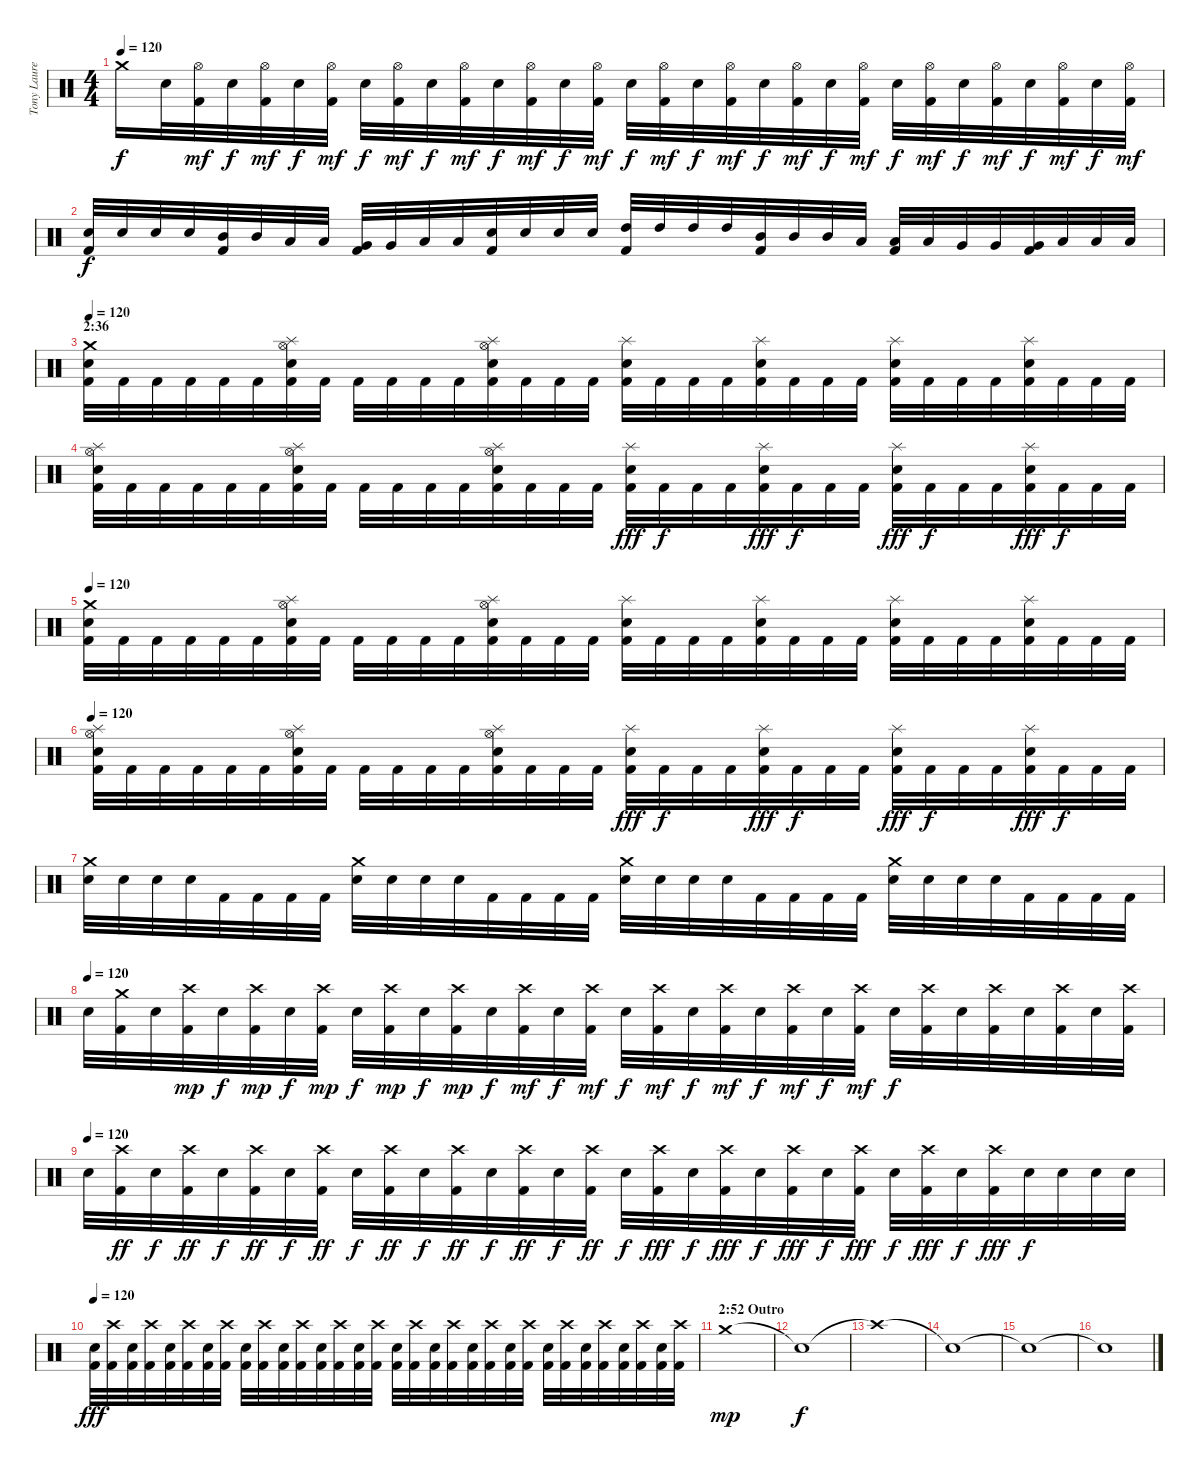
\track ("Tony Laureano" "Tony Laure") {instrument percussion}
\staff {score}
\articulation defaults
\ts (4 4)
\tempo 120
\clef neutral
\ks c "Crash medium (hit)".16{dy f} "Electric Snare (hit)".32
("Hi-Hat (open)" "Kick (hit) 2").32{dy mf} "Electric Snare (hit)".32{dy f} ("Hi-Hat (open)" "Kick (hit) 2").32{dy mf} "Electric Snare (hit)".32{dy f} ("Hi-Hat (open)" "Kick (hit) 2").32{dy mf} "Electric Snare (hit)".32{dy f} ("Hi-Hat (open)" "Kick (hit) 2").32{dy mf} "Electric Snare (hit)".32{dy f} ("Hi-Hat (open)" "Kick (hit) 2").32{dy mf} "Electric Snare (hit)".32{dy f} ("Hi-Hat (open)" "Kick (hit) 2").32{dy mf} "Electric Snare (hit)".32{dy f} ("Hi-Hat (open)" "Kick (hit) 2").32{dy mf} "Electric Snare (hit)".32{dy f} ("Hi-Hat (open)" "Kick (hit) 2").32{dy mf} "Electric Snare (hit)".32{dy f} ("Hi-Hat (open)" "Kick (hit) 2").32{dy mf} "Electric Snare (hit)".32{dy f} ("Hi-Hat (open)" "Kick (hit) 2").32{dy mf} "Electric Snare (hit)".32{dy f} ("Hi-Hat (open)" "Kick (hit) 2").32{dy mf} "Electric Snare (hit)".32{dy f} ("Hi-Hat (open)" "Kick (hit) 2").32{dy mf} "Electric Snare (hit)".32{dy f} ("Hi-Hat (open)" "Kick (hit) 2").32{dy mf} "Electric Snare (hit)".32{dy f} ("Hi-Hat (open)" "Kick (hit) 2").32{dy mf} "Electric Snare (hit)".32{dy f} ("Hi-Hat (open)" "Kick (hit) 2").32{dy mf} |
("Electric Snare (hit)" "Kick (hit) 2").32{dy f} "Electric Snare (hit)".32 "Electric Snare (hit)".32 "Electric Snare (hit)".32 ("Mid Tom (hit)" "Kick (hit) 2").32 "Mid Tom (hit)".32 "Low Tom (hit)".32 "Low Tom (hit)".32 ("Very Low Tom (hit)" "Kick (hit) 2").32 "Very Low Tom (hit)".32 "Low Floor Tom (hit)".32 "Low Floor Tom (hit)".32 ("Electric Snare (hit)" "Kick (hit) 2").32 "Electric Snare (hit)".32 "Electric Snare (hit)".32 "Electric Snare (hit)".32 ("High Tom (hit)" "Kick (hit) 2").32 "High Tom (hit)".32 "High Tom (hit)".32 "High Tom (hit)".32 ("Mid Tom (hit)" "Kick (hit) 2").32 "Mid Tom (hit)".32 "Mid Tom (hit)".32 "Low Tom (hit)".32 ("Low Tom (hit)" "Kick (hit) 2").32 "Low Tom (hit)".32 "Very Low Tom (hit)".32 "Very Low Tom (hit)".32 ("Very Low Tom (hit)" "Kick (hit) 2").32 "Low Floor Tom (hit)".32 "Low Floor Tom (hit)".32 "Low Floor Tom (hit)".32 |
\section ("" "2:36")
\tempo 120
("Crash medium (hit)" "Electric Snare (hit)" "Kick (hit) 2").32 "Kick (hit) 2".32 "Kick (hit) 2".32 "Kick (hit) 2".32 "Kick (hit) 2".32 "Kick (hit) 2".32 ("Splash (hit)" "Hi-Hat (open)" "Electric Snare (hit)" "Kick (hit) 2").32 "Kick (hit) 2".32 "Kick (hit) 2".32 "Kick (hit) 2".32 "Kick (hit) 2".32 "Kick (hit) 2".32 ("Splash (hit)" "Hi-Hat (open)" "Electric Snare (hit)" "Kick (hit) 2").32 "Kick (hit) 2".32 "Kick (hit) 2".32 "Kick (hit) 2".32 ("Splash (hit)" "Electric Snare (hit)" "Kick (hit) 2").32 "Kick (hit) 2".32 "Kick (hit) 2".32 "Kick (hit) 2".32 ("Splash (hit)" "Electric Snare (hit)" "Kick (hit) 2").32 "Kick (hit) 2".32 "Kick (hit) 2".32 "Kick (hit) 2".32 ("Splash (hit)" "Electric Snare (hit)" "Kick (hit) 2").32 "Kick (hit) 2".32 "Kick (hit) 2".32 "Kick (hit) 2".32 ("Splash (hit)" "Electric Snare (hit)" "Kick (hit) 2").32 "Kick (hit) 2".32 "Kick (hit) 2".32 "Kick (hit) 2".32 |
("Splash (hit)" "Hi-Hat (open)" "Electric Snare (hit)" "Kick (hit) 2").32 "Kick (hit) 2".32 "Kick (hit) 2".32 "Kick (hit) 2".32 "Kick (hit) 2".32 "Kick (hit) 2".32 ("Splash (hit)" "Hi-Hat (open)" "Electric Snare (hit)" "Kick (hit) 2").32 "Kick (hit) 2".32 "Kick (hit) 2".32 "Kick (hit) 2".32 "Kick (hit) 2".32 "Kick (hit) 2".32 ("Splash (hit)" "Hi-Hat (open)" "Electric Snare (hit)" "Kick (hit) 2").32 "Kick (hit) 2".32 "Kick (hit) 2".32 "Kick (hit) 2".32 ("Splash (hit)" "Electric Snare (hit)" "Kick (hit) 2").32{dy fff} "Kick (hit) 2".32{dy f} "Kick (hit) 2".32 "Kick (hit) 2".32 ("Splash (hit)" "Electric Snare (hit)" "Kick (hit) 2").32{dy fff} "Kick (hit) 2".32{dy f} "Kick (hit) 2".32 "Kick (hit) 2".32 ("Splash (hit)" "Electric Snare (hit)" "Kick (hit) 2").32{dy fff} "Kick (hit) 2".32{dy f} "Kick (hit) 2".32 "Kick (hit) 2".32 ("Splash (hit)" "Electric Snare (hit)" "Kick (hit) 2").32{dy fff} "Kick (hit) 2".32{dy f} "Kick (hit) 2".32 "Kick (hit) 2".32 |
\tempo 120
("Crash medium (hit)" "Electric Snare (hit)" "Kick (hit) 2").32 "Kick (hit) 2".32 "Kick (hit) 2".32 "Kick (hit) 2".32 "Kick (hit) 2".32 "Kick (hit) 2".32 ("Splash (hit)" "Hi-Hat (open)" "Electric Snare (hit)" "Kick (hit) 2").32 "Kick (hit) 2".32 "Kick (hit) 2".32 "Kick (hit) 2".32 "Kick (hit) 2".32 "Kick (hit) 2".32 ("Splash (hit)" "Hi-Hat (open)" "Electric Snare (hit)" "Kick (hit) 2").32 "Kick (hit) 2".32 "Kick (hit) 2".32 "Kick (hit) 2".32 ("Splash (hit)" "Electric Snare (hit)" "Kick (hit) 2").32 "Kick (hit) 2".32 "Kick (hit) 2".32 "Kick (hit) 2".32 ("Splash (hit)" "Electric Snare (hit)" "Kick (hit) 2").32 "Kick (hit) 2".32 "Kick (hit) 2".32 "Kick (hit) 2".32 ("Splash (hit)" "Electric Snare (hit)" "Kick (hit) 2").32 "Kick (hit) 2".32 "Kick (hit) 2".32 "Kick (hit) 2".32 ("Splash (hit)" "Electric Snare (hit)" "Kick (hit) 2").32 "Kick (hit) 2".32 "Kick (hit) 2".32 "Kick (hit) 2".32 |
\tempo 120
("Splash (hit)" "Hi-Hat (open)" "Electric Snare (hit)" "Kick (hit) 2").32 "Kick (hit) 2".32 "Kick (hit) 2".32 "Kick (hit) 2".32 "Kick (hit) 2".32 "Kick (hit) 2".32 ("Splash (hit)" "Hi-Hat (open)" "Electric Snare (hit)" "Kick (hit) 2").32 "Kick (hit) 2".32 "Kick (hit) 2".32 "Kick (hit) 2".32 "Kick (hit) 2".32 "Kick (hit) 2".32 ("Splash (hit)" "Hi-Hat (open)" "Electric Snare (hit)" "Kick (hit) 2").32 "Kick (hit) 2".32 "Kick (hit) 2".32 "Kick (hit) 2".32 ("Splash (hit)" "Electric Snare (hit)" "Kick (hit) 2").32{dy fff} "Kick (hit) 2".32{dy f} "Kick (hit) 2".32 "Kick (hit) 2".32 ("Splash (hit)" "Electric Snare (hit)" "Kick (hit) 2").32{dy fff} "Kick (hit) 2".32{dy f} "Kick (hit) 2".32 "Kick (hit) 2".32 ("Splash (hit)" "Electric Snare (hit)" "Kick (hit) 2").32{dy fff} "Kick (hit) 2".32{dy f} "Kick (hit) 2".32 "Kick (hit) 2".32 ("Splash (hit)" "Electric Snare (hit)" "Kick (hit) 2").32{dy fff} "Kick (hit) 2".32{dy f} "Kick (hit) 2".32 "Kick (hit) 2".32 |
("Crash medium (hit)" "Electric Snare (hit)").32 "Electric Snare (hit)".32 "Electric Snare (hit)".32 "Electric Snare (hit)".32 "Kick (hit) 2".32 "Kick (hit) 2".32 "Kick (hit) 2".32 "Kick (hit) 2".32 ("Crash medium (hit)" "Electric Snare (hit)").32 "Electric Snare (hit)".32 "Electric Snare (hit)".32 "Electric Snare (hit)".32 "Kick (hit) 2".32 "Kick (hit) 2".32 "Kick (hit) 2".32 "Kick (hit) 2".32 ("Crash medium (hit)" "Electric Snare (hit)").32 "Electric Snare (hit)".32 "Electric Snare (hit)".32 "Electric Snare (hit)".32 "Kick (hit) 2".32 "Kick (hit) 2".32 "Kick (hit) 2".32 "Kick (hit) 2".32 ("Crash medium (hit)" "Electric Snare (hit)").32 "Electric Snare (hit)".32 "Electric Snare (hit)".32 "Electric Snare (hit)".32 "Kick (hit) 2".32 "Kick (hit) 2".32 "Kick (hit) 2".32 "Kick (hit) 2".32 |
\tempo (120)
"Electric Snare (hit)".32 ("Crash medium (hit)" "Kick (hit) 2").32 "Electric Snare (hit)".32 ("Crash high (hit)" "Kick (hit) 2").32{dy mp} "Electric Snare (hit)".32{dy f} ("Crash high (hit)" "Kick (hit) 2").32{dy mp} "Electric Snare (hit)".32{dy f} ("Crash high (hit)" "Kick (hit) 2").32{dy mp} "Electric Snare (hit)".32{dy f} ("Crash high (hit)" "Kick (hit) 2").32{dy mp} "Electric Snare (hit)".32{dy f} ("Crash high (hit)" "Kick (hit) 2").32{dy mp} "Electric Snare (hit)".32{dy f} ("Crash high (hit)" "Kick (hit) 2").32{dy mf} "Electric Snare (hit)".32{dy f} ("Crash high (hit)" "Kick (hit) 2").32{dy mf} "Electric Snare (hit)".32{dy f} ("Crash high (hit)" "Kick (hit) 2").32{dy mf} "Electric Snare (hit)".32{dy f} ("Crash high (hit)" "Kick (hit) 2").32{dy mf} "Electric Snare (hit)".32{dy f} ("Crash high (hit)" "Kick (hit) 2").32{dy mf} "Electric Snare (hit)".32{dy f} ("Crash high (hit)" "Kick (hit) 2").32{dy mf} "Electric Snare (hit)".32{dy f} ("Crash high (hit)" "Kick (hit) 2").32 "Electric Snare (hit)".32 ("Crash high (hit)" "Kick (hit) 2").32 "Electric Snare (hit)".32 ("Crash high (hit)" "Kick (hit) 2").32 "Electric Snare (hit)".32 ("Crash high (hit)" "Kick (hit) 2").32 |
\tempo (120)
"Electric Snare (hit)".32 ("Crash high (hit)" "Kick (hit) 2").32{dy ff} "Electric Snare (hit)".32{dy f} ("Crash high (hit)" "Kick (hit) 2").32{dy ff} "Electric Snare (hit)".32{dy f} ("Crash high (hit)" "Kick (hit) 2").32{dy ff} "Electric Snare (hit)".32{dy f} ("Crash high (hit)" "Kick (hit) 2").32{dy ff} "Electric Snare (hit)".32{dy f} ("Crash high (hit)" "Kick (hit) 2").32{dy ff} "Electric Snare (hit)".32{dy f} ("Crash high (hit)" "Kick (hit) 2").32{dy ff} "Electric Snare (hit)".32{dy f} ("Crash high (hit)" "Kick (hit) 2").32{dy ff} "Electric Snare (hit)".32{dy f} ("Crash high (hit)" "Kick (hit) 2").32{dy ff} "Electric Snare (hit)".32{dy f} ("Crash high (hit)" "Kick (hit) 2").32{dy fff} "Electric Snare (hit)".32{dy f} ("Crash high (hit)" "Kick (hit) 2").32{dy fff} "Electric Snare (hit)".32{dy f} ("Crash high (hit)" "Kick (hit) 2").32{dy fff} "Electric Snare (hit)".32{dy f} ("Crash high (hit)" "Kick (hit) 2").32{dy fff} "Electric Snare (hit)".32{dy f} ("Crash high (hit)" "Kick (hit) 2").32{dy fff} "Electric Snare (hit)".32{dy f} ("Crash high (hit)" "Kick (hit) 2").32{dy fff} "Electric Snare (hit)".32{dy f} "Electric Snare (hit)".32 "Electric Snare (hit)".32 "Electric Snare (hit)".32 |
\tempo 120
("Electric Snare (hit)" "Kick (hit) 2").32{dy fff} ("Crash high (hit)" "Kick (hit) 2").32 ("Electric Snare (hit)" "Kick (hit) 2").32 ("Crash high (hit)" "Kick (hit) 2").32 ("Electric Snare (hit)" "Kick (hit) 2").32 ("Crash high (hit)" "Kick (hit) 2").32 ("Electric Snare (hit)" "Kick (hit) 2").32 ("Crash high (hit)" "Kick (hit) 2").32 ("Electric Snare (hit)" "Kick (hit) 2").32 ("Crash high (hit)" "Kick (hit) 2").32 ("Electric Snare (hit)" "Kick (hit) 2").32 ("Crash high (hit)" "Kick (hit) 2").32 ("Electric Snare (hit)" "Kick (hit) 2").32 ("Crash high (hit)" "Kick (hit) 2").32 ("Electric Snare (hit)" "Kick (hit) 2").32 ("Crash high (hit)" "Kick (hit) 2").32 ("Electric Snare (hit)" "Kick (hit) 2").32 ("Crash high (hit)" "Kick (hit) 2").32 ("Electric Snare (hit)" "Kick (hit) 2").32 ("Crash high (hit)" "Kick (hit) 2").32 ("Electric Snare (hit)" "Kick (hit) 2").32 ("Crash high (hit)" "Kick (hit) 2").32 ("Electric Snare (hit)" "Kick (hit) 2").32 ("Crash high (hit)" "Kick (hit) 2").32 ("Electric Snare (hit)" "Kick (hit) 2").32 ("Crash high (hit)" "Kick (hit) 2").32 ("Electric Snare (hit)" "Kick (hit) 2").32 ("Crash high (hit)" "Kick (hit) 2").32 ("Electric Snare (hit)" "Kick (hit) 2").32 ("Crash high (hit)" "Kick (hit) 2").32 ("Electric Snare (hit)" "Kick (hit) 2").32 ("Crash high (hit)" "Kick (hit) 2").32 |
\section ("" "2:52 Outro")
"Crash medium (hit)".1{dy mp} |
"Snare (hit)"{t}.1{dy f} |
"Crash high (hit)"{t}.1 |
"Snare (hit)"{t}.1 |
"Snare (hit)"{t}.1 |
"Snare (hit)"{t}.1
